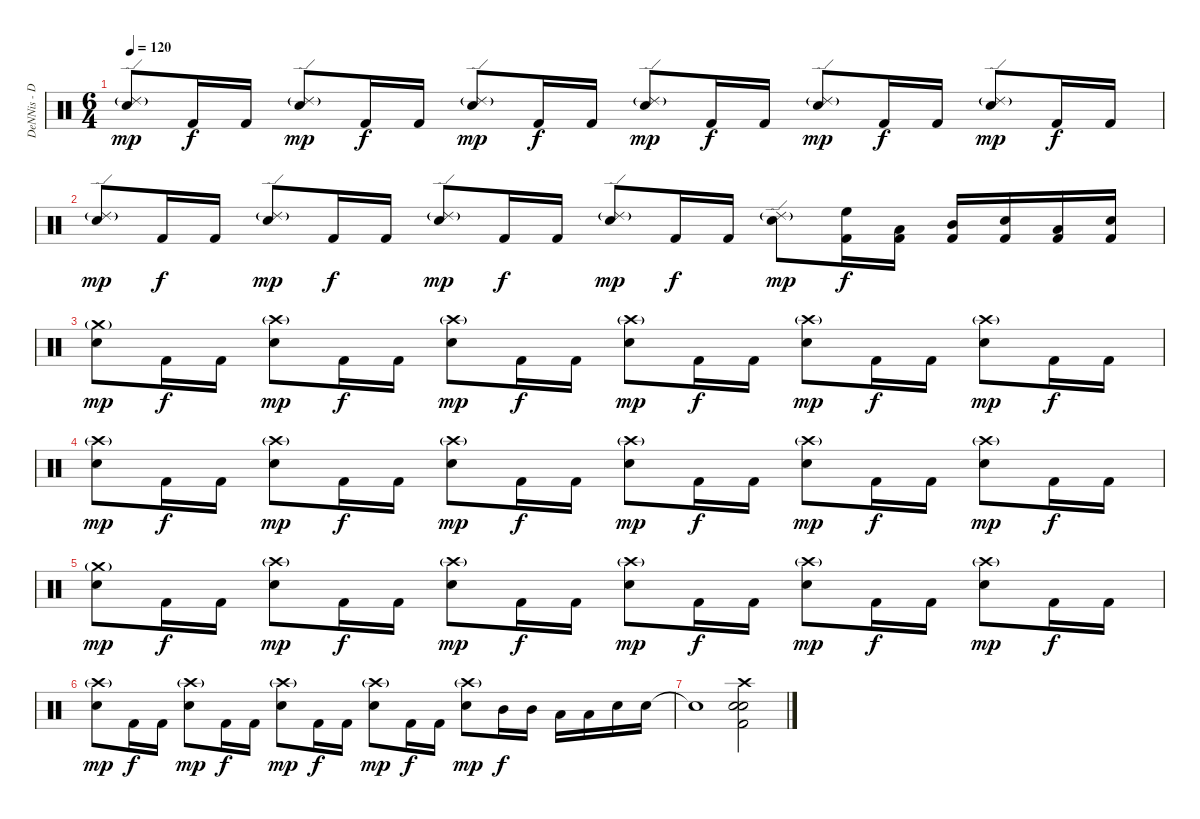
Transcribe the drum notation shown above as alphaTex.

\track ("DeNNis - Drums" "DeNNis - D") {instrument percussion}
\staff {score}
\articulation defaults
\ts (6 4)
\tempo 120
\clef neutral
\ks c
("Ride (edge) 2"{g} "Electric Snare (hit)").8{dy mp} "Kick (hit) 2".16{dy f} "Kick (hit) 2".16 ("Ride (edge) 2"{g} "Electric Snare (hit)").8{dy mp} "Kick (hit) 2".16{dy f} "Kick (hit) 2".16 ("Ride (edge) 2"{g} "Electric Snare (hit)").8{dy mp} "Kick (hit) 2".16{dy f} "Kick (hit) 2".16 ("Ride (edge) 2"{g} "Electric Snare (hit)").8{dy mp} "Kick (hit) 2".16{dy f} "Kick (hit) 2".16 ("Ride (edge) 2"{g} "Electric Snare (hit)").8{dy mp} "Kick (hit) 2".16{dy f} "Kick (hit) 2".16 ("Ride (edge) 2"{g} "Electric Snare (hit)").8{dy mp} "Kick (hit) 2".16{dy f} "Kick (hit) 2".16 |
("Ride (edge) 2"{g} "Electric Snare (hit)").8{dy mp} "Kick (hit) 2".16{dy f} "Kick (hit) 2".16 ("Ride (edge) 2"{g} "Electric Snare (hit)").8{dy mp} "Kick (hit) 2".16{dy f} "Kick (hit) 2".16 ("Ride (edge) 2"{g} "Electric Snare (hit)").8{dy mp} "Kick (hit) 2".16{dy f} "Kick (hit) 2".16 ("Ride (edge) 2"{g} "Electric Snare (hit)").8{dy mp} "Kick (hit) 2".16{dy f} "Kick (hit) 2".16 ("Ride (edge) 2"{g} "Electric Snare (hit)").8{dy mp} ("High Floor Tom (hit)" "Kick (hit) 2").16{dy f} ("Low Tom (hit)" "Kick (hit) 2").16 ("Mid Tom (hit)" "Kick (hit) 2").16 ("Electric Snare (hit)" "Kick (hit) 2").16 ("Low Floor Tom (hit)" "Kick (hit) 2").16 ("Electric Snare (hit)" "Kick (hit) 2").16 |
("Crash medium (hit)"{g} "Electric Snare (hit)").8{dy mp} "Kick (hit) 2".16{dy f} "Kick (hit) 2".16 ("Crash high (hit)"{g} "Electric Snare (hit)").8{dy mp} "Kick (hit) 2".16{dy f} "Kick (hit) 2".16 ("Crash high (hit)"{g} "Electric Snare (hit)").8{dy mp} "Kick (hit) 2".16{dy f} "Kick (hit) 2".16 ("Crash high (hit)"{g} "Electric Snare (hit)").8{dy mp} "Kick (hit) 2".16{dy f} "Kick (hit) 2".16 ("Crash high (hit)"{g} "Electric Snare (hit)").8{dy mp} "Kick (hit) 2".16{dy f} "Kick (hit) 2".16 ("Crash high (hit)"{g} "Electric Snare (hit)").8{dy mp} "Kick (hit) 2".16{dy f} "Kick (hit) 2".16 |
("Crash high (hit)"{g} "Electric Snare (hit)").8{dy mp} "Kick (hit) 2".16{dy f} "Kick (hit) 2".16 ("Crash high (hit)"{g} "Electric Snare (hit)").8{dy mp} "Kick (hit) 2".16{dy f} "Kick (hit) 2".16 ("Crash high (hit)"{g} "Electric Snare (hit)").8{dy mp} "Kick (hit) 2".16{dy f} "Kick (hit) 2".16 ("Crash high (hit)"{g} "Electric Snare (hit)").8{dy mp} "Kick (hit) 2".16{dy f} "Kick (hit) 2".16 ("Crash high (hit)"{g} "Electric Snare (hit)").8{dy mp} "Kick (hit) 2".16{dy f} "Kick (hit) 2".16 ("Crash high (hit)"{g} "Electric Snare (hit)").8{dy mp} "Kick (hit) 2".16{dy f} "Kick (hit) 2".16 |
("Crash medium (hit)"{g} "Electric Snare (hit)").8{dy mp} "Kick (hit) 2".16{dy f} "Kick (hit) 2".16 ("Crash high (hit)"{g} "Electric Snare (hit)").8{dy mp} "Kick (hit) 2".16{dy f} "Kick (hit) 2".16 ("Crash high (hit)"{g} "Electric Snare (hit)").8{dy mp} "Kick (hit) 2".16{dy f} "Kick (hit) 2".16 ("Crash high (hit)"{g} "Electric Snare (hit)").8{dy mp} "Kick (hit) 2".16{dy f} "Kick (hit) 2".16 ("Crash high (hit)"{g} "Electric Snare (hit)").8{dy mp} "Kick (hit) 2".16{dy f} "Kick (hit) 2".16 ("Crash high (hit)"{g} "Electric Snare (hit)").8{dy mp} "Kick (hit) 2".16{dy f} "Kick (hit) 2".16 |
("Crash high (hit)"{g} "Electric Snare (hit)").8{dy mp} "Kick (hit) 2".16{dy f} "Kick (hit) 2".16 ("Crash high (hit)"{g} "Electric Snare (hit)").8{dy mp} "Kick (hit) 2".16{dy f} "Kick (hit) 2".16 ("Crash high (hit)"{g} "Electric Snare (hit)").8{dy mp} "Kick (hit) 2".16{dy f} "Kick (hit) 2".16 ("Crash high (hit)"{g} "Electric Snare (hit)").8{dy mp} "Kick (hit) 2".16{dy f} "Kick (hit) 2".16 ("Crash high (hit)"{g} "Electric Snare (hit)").8{dy mp} "Mid Tom (hit)".16{dy f} "Mid Tom (hit)".16 "Low Tom (hit)".16 "Low Floor Tom (hit)".16 "Electric Snare (hit)".16 "Electric Snare (hit)".16 |
"Snare (hit)"{t}.1 ("Snare (hit) 2" "Crash high (hit)" "Electric Snare (hit)" "Kick (hit) 2").2
